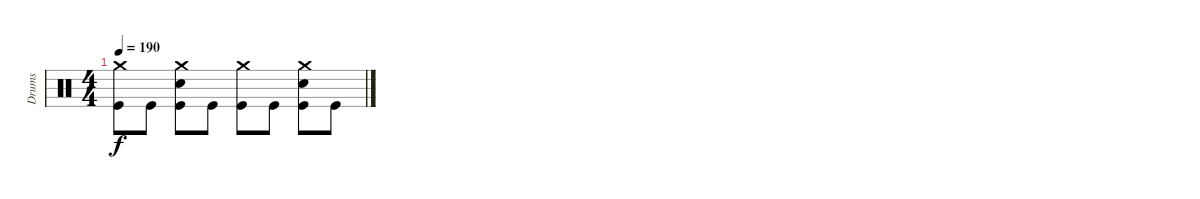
\track ("Drums" "Drums") {instrument percussion}
\staff {score}
\articulation defaults
\ts (4 4)
\tempo 190
\clef neutral
\ks c
("Crash medium (hit)" "Kick (hit)").8{dy f} "Kick (hit)".8 ("Crash medium (hit)" "Snare (hit) 2" "Kick (hit)").8 "Kick (hit)".8 ("Crash medium (hit)" "Kick (hit)").8 "Kick (hit)".8 ("Crash medium (hit)" "Snare (hit) 2" "Kick (hit)").8 "Kick (hit)".8
